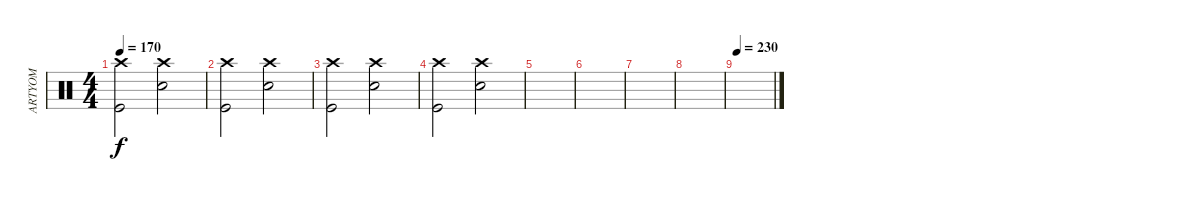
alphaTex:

\track ("ARTYOM" "ARTYOM") {instrument percussion}
\staff {score}
\articulation defaults
\ts (4 4)
\tempo 170
\clef neutral
\ks c
("Crash high (hit)" "Kick (hit)").2{dy f} ("Crash high (hit)" "Snare (hit) 2").2 |
("Crash high (hit)" "Kick (hit)").2 ("Crash high (hit)" "Snare (hit) 2").2 |
("Crash high (hit)" "Kick (hit)").2 ("Crash high (hit)" "Snare (hit) 2").2 |
("Crash high (hit)" "Kick (hit)").2 ("Crash high (hit)" "Snare (hit) 2").2 |
|
|
|
|
\tempo 230
